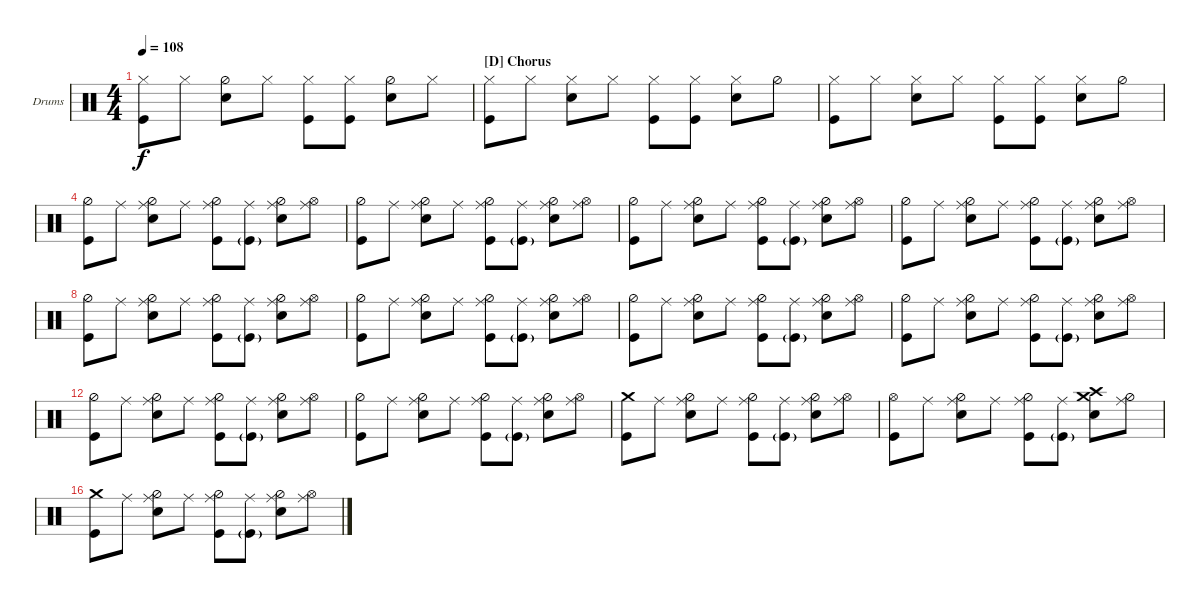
\defaultSystemsLayout 4
\bracketExtendMode nobrackets
\firstSystemTrackNameOrientation horizontal
\otherSystemsTrackNameOrientation horizontal
\defaultBarNumberDisplay FirstOfSystem
\track ("Drumkit" "Drums") {instrument percussion}
\staff {score}
\articulation defaults
\ts (4 4)
\tempo 108
\clef neutral
\ks c
("Kick (hit)" "Hi-Hat (closed)").8{dy f} "Hi-Hat (closed)".8 ("Snare (hit) 2" "Hi-Hat (half)").8 "Hi-Hat (closed)".8 ("Hi-Hat (closed)" "Kick (hit)").8 ("Hi-Hat (closed)" "Kick (hit)").8 ("Snare (hit) 2" "Hi-Hat (half)").8 "Hi-Hat (closed)".8 |
\section ("D" "Chorus")
("Kick (hit)" "Hi-Hat (closed)").8 "Hi-Hat (closed)".8 ("Snare (hit) 2" "Hi-Hat (closed)").8 "Hi-Hat (closed)".8 ("Hi-Hat (closed)" "Kick (hit)").8 ("Hi-Hat (closed)" "Kick (hit)").8 ("Snare (hit) 2" "Hi-Hat (closed)").8 "Hi-Hat (half)".8 |
("Kick (hit)" "Hi-Hat (closed)").8 "Hi-Hat (closed)".8 ("Snare (hit) 2" "Hi-Hat (closed)").8 "Hi-Hat (closed)".8 ("Hi-Hat (closed)" "Kick (hit)").8 ("Hi-Hat (closed)" "Kick (hit)").8 ("Snare (hit) 2" "Hi-Hat (closed)").8 "Hi-Hat (half)".8 |
("Kick (hit)" "Hi-Hat (half)").8 "Ride (middle)".8 ("Snare (hit) 2" "Hi-Hat (half)" "Ride (middle)").8 "Ride (middle)".8 ("Kick (hit)" "Hi-Hat (half)" "Ride (middle)").8 ("Kick (hit)"{g} "Ride (middle)").8 ("Snare (hit) 2" "Hi-Hat (half)" "Ride (middle)").8 ("Hi-Hat (open)" "Ride (middle)").8 |
("Kick (hit)" "Hi-Hat (half)").8 "Ride (middle)".8 ("Snare (hit) 2" "Hi-Hat (half)" "Ride (middle)").8 "Ride (middle)".8 ("Kick (hit)" "Hi-Hat (half)" "Ride (middle)").8 ("Kick (hit)"{g} "Ride (middle)").8 ("Snare (hit) 2" "Hi-Hat (half)" "Ride (middle)").8 ("Hi-Hat (open)" "Ride (middle)").8 |
("Kick (hit)" "Hi-Hat (half)").8 "Ride (middle)".8 ("Snare (hit) 2" "Hi-Hat (half)" "Ride (middle)").8 "Ride (middle)".8 ("Kick (hit)" "Hi-Hat (half)" "Ride (middle)").8 ("Kick (hit)"{g} "Ride (middle)").8 ("Snare (hit) 2" "Hi-Hat (half)" "Ride (middle)").8 ("Hi-Hat (open)" "Ride (middle)").8 |
("Kick (hit)" "Hi-Hat (half)").8 "Ride (middle)".8 ("Snare (hit) 2" "Hi-Hat (half)" "Ride (middle)").8 "Ride (middle)".8 ("Kick (hit)" "Hi-Hat (half)" "Ride (middle)").8 ("Kick (hit)"{g} "Ride (middle)").8 ("Snare (hit) 2" "Hi-Hat (half)" "Ride (middle)").8 ("Hi-Hat (open)" "Ride (middle)").8 |
("Kick (hit)" "Hi-Hat (half)").8 "Ride (middle)".8 ("Snare (hit) 2" "Hi-Hat (half)" "Ride (middle)").8 "Ride (middle)".8 ("Kick (hit)" "Hi-Hat (half)" "Ride (middle)").8 ("Kick (hit)"{g} "Ride (middle)").8 ("Snare (hit) 2" "Hi-Hat (half)" "Ride (middle)").8 ("Hi-Hat (open)" "Ride (middle)").8 |
("Kick (hit)" "Hi-Hat (half)").8 "Ride (middle)".8 ("Snare (hit) 2" "Hi-Hat (half)" "Ride (middle)").8 "Ride (middle)".8 ("Kick (hit)" "Hi-Hat (half)" "Ride (middle)").8 ("Kick (hit)"{g} "Ride (middle)").8 ("Snare (hit) 2" "Hi-Hat (half)" "Ride (middle)").8 ("Hi-Hat (open)" "Ride (middle)").8 |
("Kick (hit)" "Hi-Hat (half)").8 "Ride (middle)".8 ("Snare (hit) 2" "Hi-Hat (half)" "Ride (middle)").8 "Ride (middle)".8 ("Kick (hit)" "Hi-Hat (half)" "Ride (middle)").8 ("Kick (hit)"{g} "Ride (middle)").8 ("Snare (hit) 2" "Hi-Hat (half)" "Ride (middle)").8 ("Hi-Hat (open)" "Ride (middle)").8 |
("Kick (hit)" "Hi-Hat (half)").8 "Ride (middle)".8 ("Snare (hit) 2" "Hi-Hat (half)" "Ride (middle)").8 "Ride (middle)".8 ("Kick (hit)" "Hi-Hat (half)" "Ride (middle)").8 ("Kick (hit)"{g} "Ride (middle)").8 ("Snare (hit) 2" "Hi-Hat (half)" "Ride (middle)").8 ("Hi-Hat (open)" "Ride (middle)").8 |
("Kick (hit)" "Hi-Hat (half)").8 "Ride (middle)".8 ("Snare (hit) 2" "Hi-Hat (half)" "Ride (middle)").8 "Ride (middle)".8 ("Kick (hit)" "Hi-Hat (half)" "Ride (middle)").8 ("Kick (hit)"{g} "Ride (middle)").8 ("Snare (hit) 2" "Hi-Hat (half)" "Ride (middle)").8 ("Hi-Hat (open)" "Ride (middle)").8 |
("Kick (hit)" "Hi-Hat (half)").8 "Ride (middle)".8 ("Snare (hit) 2" "Hi-Hat (half)" "Ride (middle)").8 "Ride (middle)".8 ("Kick (hit)" "Hi-Hat (half)" "Ride (middle)").8 ("Kick (hit)"{g} "Ride (middle)").8 ("Snare (hit) 2" "Hi-Hat (half)" "Ride (middle)").8 ("Hi-Hat (open)" "Ride (middle)").8 |
("Kick (hit)" "Crash medium (hit)").8 "Ride (middle)".8 ("Snare (hit) 2" "Hi-Hat (half)" "Ride (middle)").8 "Ride (middle)".8 ("Kick (hit)" "Hi-Hat (half)" "Ride (middle)").8 ("Kick (hit)"{g} "Ride (middle)").8 ("Snare (hit) 2" "Hi-Hat (half)" "Ride (middle)").8 ("Hi-Hat (open)" "Ride (middle)").8 |
("Kick (hit)" "Hi-Hat (open)").8 "Ride (middle)".8 ("Snare (hit) 2" "Hi-Hat (half)" "Ride (middle)").8 "Ride (middle)".8 ("Kick (hit)" "Hi-Hat (half)" "Ride (middle)").8 ("Kick (hit)"{g} "Ride (middle)").8 ("Snare (hit) 2" "Crash high (hit)" "Crash medium (hit)").8 ("Hi-Hat (half)" "Ride (middle)").8 |
("Kick (hit)" "Crash medium (hit)").8 "Ride (middle)".8 ("Snare (hit) 2" "Hi-Hat (half)" "Ride (middle)").8 "Ride (middle)".8 ("Kick (hit)" "Hi-Hat (half)" "Ride (middle)").8 ("Kick (hit)"{g} "Ride (middle)").8 ("Snare (hit) 2" "Hi-Hat (half)" "Ride (middle)").8 ("Hi-Hat (open)" "Ride (middle)").8
